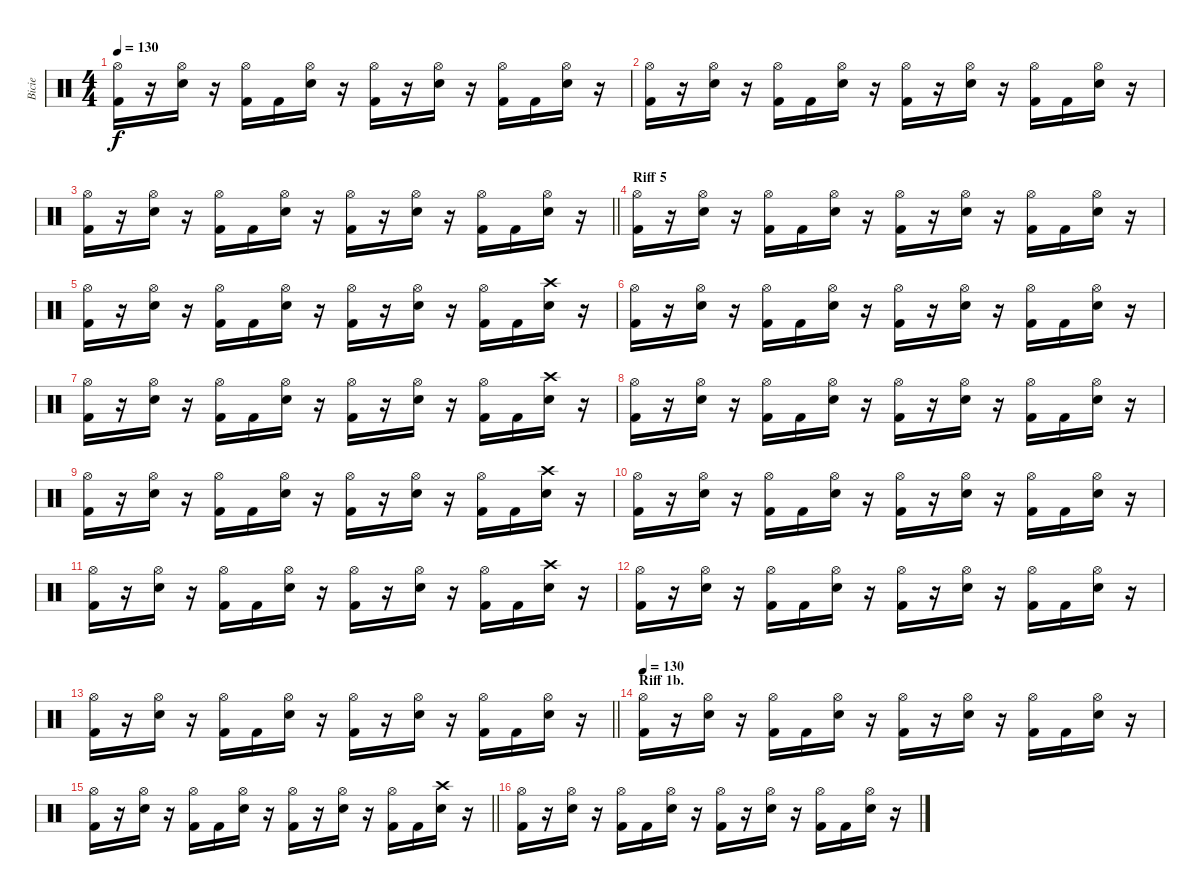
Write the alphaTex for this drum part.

\track ("Bicie" "Bicie") {instrument percussion}
\staff {score}
\articulation defaults
\ts (4 4)
\tempo 130
\clef neutral
\ks c
("Hi-Hat (open)" "Kick (hit) 2").16{dy f} r.16 ("Hi-Hat (open)" "Snare (hit) 2").16 r.16 ("Hi-Hat (open)" "Kick (hit) 2").16 "Kick (hit) 2".16 ("Hi-Hat (open)" "Snare (hit) 2").16 r.16 ("Hi-Hat (open)" "Kick (hit) 2").16 r.16 ("Hi-Hat (open)" "Snare (hit) 2").16 r.16 ("Hi-Hat (open)" "Kick (hit) 2").16 "Kick (hit) 2".16 ("Hi-Hat (open)" "Snare (hit) 2").16 r.16 |
("Hi-Hat (open)" "Kick (hit) 2").16 r.16 ("Hi-Hat (open)" "Snare (hit) 2").16 r.16 ("Hi-Hat (open)" "Kick (hit) 2").16 "Kick (hit) 2".16 ("Hi-Hat (open)" "Snare (hit) 2").16 r.16 ("Hi-Hat (open)" "Kick (hit) 2").16 r.16 ("Hi-Hat (open)" "Snare (hit) 2").16 r.16 ("Hi-Hat (open)" "Kick (hit) 2").16 "Kick (hit) 2".16 ("Hi-Hat (open)" "Snare (hit) 2").16 r.16 |
\barLineRight lightlight
("Hi-Hat (open)" "Kick (hit) 2").16 r.16 ("Hi-Hat (open)" "Snare (hit) 2").16 r.16 ("Hi-Hat (open)" "Kick (hit) 2").16 "Kick (hit) 2".16 ("Hi-Hat (open)" "Snare (hit) 2").16 r.16 ("Hi-Hat (open)" "Kick (hit) 2").16 r.16 ("Hi-Hat (open)" "Snare (hit) 2").16 r.16 ("Hi-Hat (open)" "Kick (hit) 2").16 "Kick (hit) 2".16 ("Hi-Hat (open)" "Snare (hit) 2").16 r.16 |
\section ("" "Riff 5")
("Hi-Hat (open)" "Kick (hit) 2").16 r.16 ("Hi-Hat (open)" "Snare (hit) 2").16 r.16 ("Hi-Hat (open)" "Kick (hit) 2").16 "Kick (hit) 2".16 ("Hi-Hat (open)" "Snare (hit) 2").16 r.16 ("Hi-Hat (open)" "Kick (hit) 2").16 r.16 ("Hi-Hat (open)" "Snare (hit) 2").16 r.16 ("Hi-Hat (open)" "Kick (hit) 2").16 "Kick (hit) 2".16 ("Hi-Hat (open)" "Snare (hit) 2").16 r.16 |
("Hi-Hat (open)" "Kick (hit) 2").16 r.16 ("Hi-Hat (open)" "Snare (hit) 2").16 r.16 ("Hi-Hat (open)" "Kick (hit) 2").16 "Kick (hit) 2".16 ("Hi-Hat (open)" "Snare (hit) 2").16 r.16 ("Hi-Hat (open)" "Kick (hit) 2").16 r.16 ("Hi-Hat (open)" "Snare (hit) 2").16 r.16 ("Hi-Hat (open)" "Kick (hit) 2").16 "Kick (hit) 2".16 ("Crash high (hit)" "Snare (hit) 2").16 r.16 |
("Hi-Hat (open)" "Kick (hit) 2").16 r.16 ("Hi-Hat (open)" "Snare (hit) 2").16 r.16 ("Hi-Hat (open)" "Kick (hit) 2").16 "Kick (hit) 2".16 ("Hi-Hat (open)" "Snare (hit) 2").16 r.16 ("Hi-Hat (open)" "Kick (hit) 2").16 r.16 ("Hi-Hat (open)" "Snare (hit) 2").16 r.16 ("Hi-Hat (open)" "Kick (hit) 2").16 "Kick (hit) 2".16 ("Hi-Hat (open)" "Snare (hit) 2").16 r.16 |
("Hi-Hat (open)" "Kick (hit) 2").16 r.16 ("Hi-Hat (open)" "Snare (hit) 2").16 r.16 ("Hi-Hat (open)" "Kick (hit) 2").16 "Kick (hit) 2".16 ("Hi-Hat (open)" "Snare (hit) 2").16 r.16 ("Hi-Hat (open)" "Kick (hit) 2").16 r.16 ("Hi-Hat (open)" "Snare (hit) 2").16 r.16 ("Hi-Hat (open)" "Kick (hit) 2").16 "Kick (hit) 2".16 ("Crash high (hit)" "Snare (hit) 2").16 r.16 |
("Hi-Hat (open)" "Kick (hit) 2").16 r.16 ("Hi-Hat (open)" "Snare (hit) 2").16 r.16 ("Hi-Hat (open)" "Kick (hit) 2").16 "Kick (hit) 2".16 ("Hi-Hat (open)" "Snare (hit) 2").16 r.16 ("Hi-Hat (open)" "Kick (hit) 2").16 r.16 ("Hi-Hat (open)" "Snare (hit) 2").16 r.16 ("Hi-Hat (open)" "Kick (hit) 2").16 "Kick (hit) 2".16 ("Hi-Hat (open)" "Snare (hit) 2").16 r.16 |
("Hi-Hat (open)" "Kick (hit) 2").16 r.16 ("Hi-Hat (open)" "Snare (hit) 2").16 r.16 ("Hi-Hat (open)" "Kick (hit) 2").16 "Kick (hit) 2".16 ("Hi-Hat (open)" "Snare (hit) 2").16 r.16 ("Hi-Hat (open)" "Kick (hit) 2").16 r.16 ("Hi-Hat (open)" "Snare (hit) 2").16 r.16 ("Hi-Hat (open)" "Kick (hit) 2").16 "Kick (hit) 2".16 ("Crash high (hit)" "Snare (hit) 2").16 r.16 |
("Hi-Hat (open)" "Kick (hit) 2").16 r.16 ("Hi-Hat (open)" "Snare (hit) 2").16 r.16 ("Hi-Hat (open)" "Kick (hit) 2").16 "Kick (hit) 2".16 ("Hi-Hat (open)" "Snare (hit) 2").16 r.16 ("Hi-Hat (open)" "Kick (hit) 2").16 r.16 ("Hi-Hat (open)" "Snare (hit) 2").16 r.16 ("Hi-Hat (open)" "Kick (hit) 2").16 "Kick (hit) 2".16 ("Hi-Hat (open)" "Snare (hit) 2").16 r.16 |
("Hi-Hat (open)" "Kick (hit) 2").16 r.16 ("Hi-Hat (open)" "Snare (hit) 2").16 r.16 ("Hi-Hat (open)" "Kick (hit) 2").16 "Kick (hit) 2".16 ("Hi-Hat (open)" "Snare (hit) 2").16 r.16 ("Hi-Hat (open)" "Kick (hit) 2").16 r.16 ("Hi-Hat (open)" "Snare (hit) 2").16 r.16 ("Hi-Hat (open)" "Kick (hit) 2").16 "Kick (hit) 2".16 ("Crash high (hit)" "Snare (hit) 2").16 r.16 |
("Hi-Hat (open)" "Kick (hit) 2").16 r.16 ("Hi-Hat (open)" "Snare (hit) 2").16 r.16 ("Hi-Hat (open)" "Kick (hit) 2").16 "Kick (hit) 2".16 ("Hi-Hat (open)" "Snare (hit) 2").16 r.16 ("Hi-Hat (open)" "Kick (hit) 2").16 r.16 ("Hi-Hat (open)" "Snare (hit) 2").16 r.16 ("Hi-Hat (open)" "Kick (hit) 2").16 "Kick (hit) 2".16 ("Hi-Hat (open)" "Snare (hit) 2").16 r.16 |
\barLineRight lightlight
("Hi-Hat (open)" "Kick (hit) 2").16 r.16 ("Hi-Hat (open)" "Snare (hit) 2").16 r.16 ("Hi-Hat (open)" "Kick (hit) 2").16 "Kick (hit) 2".16 ("Hi-Hat (open)" "Snare (hit) 2").16 r.16 ("Hi-Hat (open)" "Kick (hit) 2").16 r.16 ("Hi-Hat (open)" "Snare (hit) 2").16 r.16 ("Hi-Hat (open)" "Kick (hit) 2").16 "Kick (hit) 2".16 ("Hi-Hat (open)" "Snare (hit) 2").16 r.16 |
\section ("" "Riff 1b.")
\tempo 130
("Hi-Hat (open)" "Kick (hit) 2").16 r.16 ("Hi-Hat (open)" "Snare (hit) 2").16 r.16 ("Hi-Hat (open)" "Kick (hit) 2").16 "Kick (hit) 2".16 ("Hi-Hat (open)" "Snare (hit) 2").16 r.16 ("Hi-Hat (open)" "Kick (hit) 2").16 r.16 ("Hi-Hat (open)" "Snare (hit) 2").16 r.16 ("Hi-Hat (open)" "Kick (hit) 2").16 "Kick (hit) 2".16 ("Hi-Hat (open)" "Snare (hit) 2").16 r.16 |
\barLineRight lightlight
("Hi-Hat (open)" "Kick (hit) 2").16 r.16 ("Hi-Hat (open)" "Snare (hit) 2").16 r.16 ("Hi-Hat (open)" "Kick (hit) 2").16 "Kick (hit) 2".16 ("Hi-Hat (open)" "Snare (hit) 2").16 r.16 ("Hi-Hat (open)" "Kick (hit) 2").16 r.16 ("Hi-Hat (open)" "Snare (hit) 2").16 r.16 ("Hi-Hat (open)" "Kick (hit) 2").16 "Kick (hit) 2".16 ("Crash high (hit)" "Snare (hit) 2").16 r.16 |
("Hi-Hat (open)" "Kick (hit) 2").16 r.16 ("Hi-Hat (open)" "Snare (hit) 2").16 r.16 ("Hi-Hat (open)" "Kick (hit) 2").16 "Kick (hit) 2".16 ("Hi-Hat (open)" "Snare (hit) 2").16 r.16 ("Hi-Hat (open)" "Kick (hit) 2").16 r.16 ("Hi-Hat (open)" "Snare (hit) 2").16 r.16 ("Hi-Hat (open)" "Kick (hit) 2").16 "Kick (hit) 2".16 ("Hi-Hat (open)" "Snare (hit) 2").16 r.16
